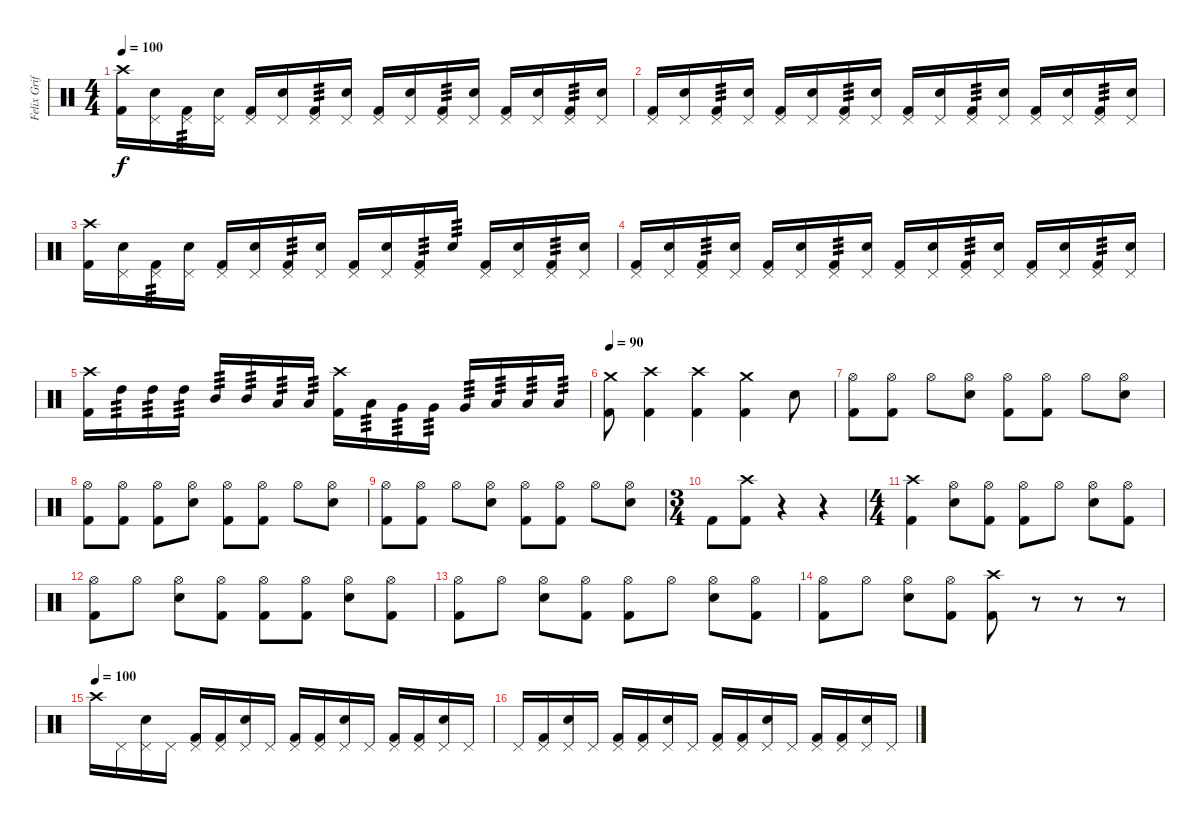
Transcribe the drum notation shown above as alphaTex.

\track ("Felix Griffen" "Felix Grif") {instrument percussion}
\staff {score}
\articulation defaults
\ts (4 4)
\tempo 100
\clef neutral
\ks c
("Crash high (hit)" "Kick (hit) 2").16{dy f} ("Pedal Hi-Hat (hit)" "Electric Snare (hit)").16 ("Pedal Hi-Hat (hit)" "Kick (hit) 2").16{tp 3} ("Pedal Hi-Hat (hit)" "Electric Snare (hit)").16 ("Pedal Hi-Hat (hit)" "Kick (hit) 2").16 ("Pedal Hi-Hat (hit)" "Electric Snare (hit)").16 ("Pedal Hi-Hat (hit)" "Kick (hit) 2").16{tp 3} ("Pedal Hi-Hat (hit)" "Electric Snare (hit)").16 ("Pedal Hi-Hat (hit)" "Kick (hit) 2").16 ("Pedal Hi-Hat (hit)" "Electric Snare (hit)").16 ("Pedal Hi-Hat (hit)" "Kick (hit) 2").16{tp 3} ("Pedal Hi-Hat (hit)" "Electric Snare (hit)").16 ("Pedal Hi-Hat (hit)" "Kick (hit) 2").16 ("Pedal Hi-Hat (hit)" "Electric Snare (hit)").16 ("Pedal Hi-Hat (hit)" "Kick (hit) 2").16{tp 3} ("Pedal Hi-Hat (hit)" "Electric Snare (hit)").16 |
("Pedal Hi-Hat (hit)" "Kick (hit) 2").16 ("Pedal Hi-Hat (hit)" "Electric Snare (hit)").16 ("Pedal Hi-Hat (hit)" "Kick (hit) 2").16{tp 3} ("Pedal Hi-Hat (hit)" "Electric Snare (hit)").16 ("Pedal Hi-Hat (hit)" "Kick (hit) 2").16 ("Pedal Hi-Hat (hit)" "Electric Snare (hit)").16 ("Pedal Hi-Hat (hit)" "Kick (hit) 2").16{tp 3} ("Pedal Hi-Hat (hit)" "Electric Snare (hit)").16 ("Pedal Hi-Hat (hit)" "Kick (hit) 2").16 ("Pedal Hi-Hat (hit)" "Electric Snare (hit)").16 ("Pedal Hi-Hat (hit)" "Kick (hit) 2").16{tp 3} ("Pedal Hi-Hat (hit)" "Electric Snare (hit)").16 ("Pedal Hi-Hat (hit)" "Kick (hit) 2").16 ("Pedal Hi-Hat (hit)" "Electric Snare (hit)").16 ("Pedal Hi-Hat (hit)" "Kick (hit) 2").16{tp 3} ("Pedal Hi-Hat (hit)" "Electric Snare (hit)").16 |
("Crash high (hit)" "Kick (hit) 2").16 ("Pedal Hi-Hat (hit)" "Electric Snare (hit)").16 ("Pedal Hi-Hat (hit)" "Kick (hit) 2").16{tp 3} ("Pedal Hi-Hat (hit)" "Electric Snare (hit)").16 ("Pedal Hi-Hat (hit)" "Kick (hit) 2").16 ("Pedal Hi-Hat (hit)" "Electric Snare (hit)").16 ("Pedal Hi-Hat (hit)" "Kick (hit) 2").16{tp 3} ("Pedal Hi-Hat (hit)" "Electric Snare (hit)").16 ("Pedal Hi-Hat (hit)" "Kick (hit) 2").16 ("Pedal Hi-Hat (hit)" "Electric Snare (hit)").16 ("Pedal Hi-Hat (hit)" "Kick (hit) 2").16{tp 3} "Electric Snare (hit)".16{tp 3} ("Pedal Hi-Hat (hit)" "Kick (hit) 2").16 ("Pedal Hi-Hat (hit)" "Electric Snare (hit)").16 ("Pedal Hi-Hat (hit)" "Kick (hit) 2").16{tp 3} ("Pedal Hi-Hat (hit)" "Electric Snare (hit)").16 |
("Pedal Hi-Hat (hit)" "Kick (hit) 2").16 ("Pedal Hi-Hat (hit)" "Electric Snare (hit)").16 ("Pedal Hi-Hat (hit)" "Kick (hit) 2").16{tp 3} ("Pedal Hi-Hat (hit)" "Electric Snare (hit)").16 ("Pedal Hi-Hat (hit)" "Kick (hit) 2").16 ("Pedal Hi-Hat (hit)" "Electric Snare (hit)").16 ("Pedal Hi-Hat (hit)" "Kick (hit) 2").16{tp 3} ("Pedal Hi-Hat (hit)" "Electric Snare (hit)").16 ("Pedal Hi-Hat (hit)" "Kick (hit) 2").16 ("Pedal Hi-Hat (hit)" "Electric Snare (hit)").16 ("Pedal Hi-Hat (hit)" "Kick (hit) 2").16{tp 3} ("Pedal Hi-Hat (hit)" "Electric Snare (hit)").16 ("Pedal Hi-Hat (hit)" "Kick (hit) 2").16 ("Pedal Hi-Hat (hit)" "Electric Snare (hit)").16 ("Pedal Hi-Hat (hit)" "Kick (hit) 2").16{tp 3} ("Pedal Hi-Hat (hit)" "Electric Snare (hit)").16 |
("Crash high (hit)" "Kick (hit) 2").16 "High Tom (hit)".16{tp 3} "High Tom (hit)".16{tp 3} "High Tom (hit)".16{tp 3} "Mid Tom (hit)".16{tp 3} "Mid Tom (hit)".16{tp 3} "Low Tom (hit)".16{tp 3} "Low Tom (hit)".16{tp 3} ("Crash high (hit)" "Kick (hit) 2").16 "Low Tom (hit)".16{tp 3} "Very Low Tom (hit)".16{tp 3} "Very Low Tom (hit)".16{tp 3} "Very Low Tom (hit)".16{tp 3} "Low Floor Tom (hit)".16{tp 3} "Low Floor Tom (hit)".16{tp 3} "Low Floor Tom (hit)".16{tp 3} |
\tempo 90
("Crash medium (hit)" "Kick (hit) 2").8 ("Crash high (hit)" "Kick (hit) 2").4 ("Crash high (hit)" "Kick (hit) 2").4 ("Crash medium (hit)" "Kick (hit) 2").4 "Electric Snare (hit)".8 |
("Hi-Hat (open)" "Kick (hit) 2").8 ("Hi-Hat (open)" "Kick (hit) 2").8 "Hi-Hat (open)".8 ("Hi-Hat (open)" "Electric Snare (hit)").8 ("Hi-Hat (open)" "Kick (hit) 2").8 ("Hi-Hat (open)" "Kick (hit) 2").8 "Hi-Hat (open)".8 ("Hi-Hat (open)" "Electric Snare (hit)").8 |
("Hi-Hat (open)" "Kick (hit) 2").8 ("Hi-Hat (open)" "Kick (hit) 2").8 ("Hi-Hat (open)" "Kick (hit) 2").8 ("Hi-Hat (open)" "Electric Snare (hit)").8 ("Hi-Hat (open)" "Kick (hit) 2").8 ("Hi-Hat (open)" "Kick (hit) 2").8 "Hi-Hat (open)".8 ("Hi-Hat (open)" "Electric Snare (hit)").8 |
("Hi-Hat (open)" "Kick (hit) 2").8 ("Hi-Hat (open)" "Kick (hit) 2").8 "Hi-Hat (open)".8 ("Hi-Hat (open)" "Electric Snare (hit)").8 ("Hi-Hat (open)" "Kick (hit) 2").8 ("Hi-Hat (open)" "Kick (hit) 2").8 "Hi-Hat (open)".8 ("Hi-Hat (open)" "Electric Snare (hit)").8 |
\ts (3 4)
"Kick (hit) 2".8 ("Crash high (hit)" "Kick (hit) 2").8 r.4 r.4 |
\ts (4 4)
("Crash high (hit)" "Kick (hit) 2").4 ("Hi-Hat (open)" "Electric Snare (hit)").8 ("Hi-Hat (open)" "Kick (hit) 2").8 ("Hi-Hat (open)" "Kick (hit) 2").8 "Hi-Hat (open)".8 ("Hi-Hat (open)" "Electric Snare (hit)").8 ("Hi-Hat (open)" "Kick (hit) 2").8 |
("Hi-Hat (open)" "Kick (hit) 2").8 "Hi-Hat (open)".8 ("Hi-Hat (open)" "Electric Snare (hit)").8 ("Hi-Hat (open)" "Kick (hit) 2").8 ("Hi-Hat (open)" "Kick (hit) 2").8 ("Hi-Hat (open)" "Kick (hit) 2").8 ("Hi-Hat (open)" "Electric Snare (hit)").8 ("Hi-Hat (open)" "Kick (hit) 2").8 |
("Hi-Hat (open)" "Kick (hit) 2").8 "Hi-Hat (open)".8 ("Hi-Hat (open)" "Electric Snare (hit)").8 ("Hi-Hat (open)" "Kick (hit) 2").8 ("Hi-Hat (open)" "Kick (hit) 2").8 "Hi-Hat (open)".8 ("Hi-Hat (open)" "Electric Snare (hit)").8 ("Hi-Hat (open)" "Kick (hit) 2").8 |
("Hi-Hat (open)" "Kick (hit) 2").8 "Hi-Hat (open)".8 ("Hi-Hat (open)" "Electric Snare (hit)").8 ("Hi-Hat (open)" "Kick (hit) 2").8 ("Crash high (hit)" "Kick (hit) 2").8 r.8 r.8 r.8 |
\tempo (100)
"Crash high (hit)".16 "Pedal Hi-Hat (hit)".16 ("Pedal Hi-Hat (hit)" "Electric Snare (hit)").16 "Pedal Hi-Hat (hit)".16 ("Pedal Hi-Hat (hit)" "Kick (hit) 2").16 ("Pedal Hi-Hat (hit)" "Kick (hit) 2").16 ("Pedal Hi-Hat (hit)" "Electric Snare (hit)").16 "Pedal Hi-Hat (hit)".16 ("Pedal Hi-Hat (hit)" "Kick (hit) 2").16 ("Pedal Hi-Hat (hit)" "Kick (hit) 2").16 ("Pedal Hi-Hat (hit)" "Electric Snare (hit)").16 "Pedal Hi-Hat (hit)".16 ("Pedal Hi-Hat (hit)" "Kick (hit) 2").16 ("Pedal Hi-Hat (hit)" "Kick (hit) 2").16 ("Pedal Hi-Hat (hit)" "Electric Snare (hit)").16 "Pedal Hi-Hat (hit)".16 |
"Pedal Hi-Hat (hit)".16 ("Pedal Hi-Hat (hit)" "Kick (hit) 2").16 ("Pedal Hi-Hat (hit)" "Electric Snare (hit)").16 "Pedal Hi-Hat (hit)".16 ("Pedal Hi-Hat (hit)" "Kick (hit) 2").16 ("Pedal Hi-Hat (hit)" "Kick (hit) 2").16 ("Pedal Hi-Hat (hit)" "Electric Snare (hit)").16 "Pedal Hi-Hat (hit)".16 ("Pedal Hi-Hat (hit)" "Kick (hit) 2").16 ("Pedal Hi-Hat (hit)" "Kick (hit) 2").16 ("Pedal Hi-Hat (hit)" "Electric Snare (hit)").16 "Pedal Hi-Hat (hit)".16 ("Pedal Hi-Hat (hit)" "Kick (hit) 2").16 ("Pedal Hi-Hat (hit)" "Kick (hit) 2").16 ("Pedal Hi-Hat (hit)" "Electric Snare (hit)").16 "Pedal Hi-Hat (hit)".16
